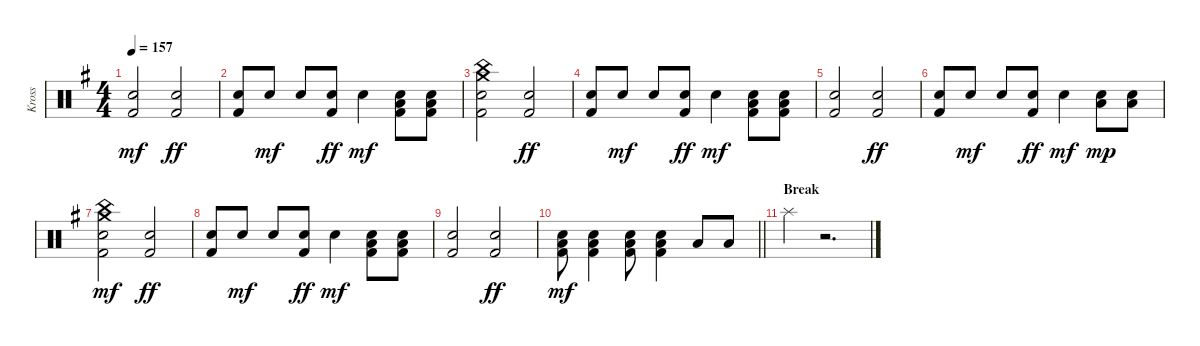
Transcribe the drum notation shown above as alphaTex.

\track ("Kross" "Kross") {instrument percussion}
\staff {score}
\articulation defaults
\ts (4 4)
\tempo 157
\clef neutral
\ks g
("Electric Snare (hit)" "Kick (hit) 2").2{dy mf} ("Electric Snare (hit)" "Kick (hit) 2").2{dy ff} |
("Electric Snare (hit)" "Kick (hit) 2").8 "Electric Snare (hit)".8{dy mf} "Electric Snare (hit)".8 ("Electric Snare (hit)" "Kick (hit) 2").8{dy ff} "Electric Snare (hit)".4{dy mf} ("Electric Snare (hit)" "Low Floor Tom (hit)" "Kick (hit) 2").8 ("Electric Snare (hit)" "Low Floor Tom (hit)" "Kick (hit) 2").8 |
("Crash medium (hit)" "Electric Snare (hit)" "China (hit)" "Kick (hit) 2").2 ("Electric Snare (hit)" "Kick (hit) 2").2{dy ff} |
("Electric Snare (hit)" "Kick (hit) 2").8 "Electric Snare (hit)".8{dy mf} "Electric Snare (hit)".8 ("Electric Snare (hit)" "Kick (hit) 2").8{dy ff} "Electric Snare (hit)".4{dy mf} ("Electric Snare (hit)" "Low Floor Tom (hit)" "Kick (hit) 2").8 ("Electric Snare (hit)" "Low Floor Tom (hit)" "Kick (hit) 2").8 |
("Electric Snare (hit)" "Kick (hit) 2").2 ("Electric Snare (hit)" "Kick (hit) 2").2{dy ff} |
("Electric Snare (hit)" "Kick (hit) 2").8 "Electric Snare (hit)".8{dy mf} "Electric Snare (hit)".8 ("Electric Snare (hit)" "Kick (hit) 2").8{dy ff} "Electric Snare (hit)".4{dy mf} ("Electric Snare (hit)" "Low Floor Tom (hit)").8{dy mp} ("Electric Snare (hit)" "Low Floor Tom (hit)").8 |
("Crash medium (hit)" "Electric Snare (hit)" "China (hit)" "Kick (hit) 2").2{dy mf} ("Electric Snare (hit)" "Kick (hit) 2").2{dy ff} |
("Electric Snare (hit)" "Kick (hit) 2").8 "Electric Snare (hit)".8{dy mf} "Electric Snare (hit)".8 ("Electric Snare (hit)" "Kick (hit) 2").8{dy ff} "Electric Snare (hit)".4{dy mf} ("Electric Snare (hit)" "Low Floor Tom (hit)" "Kick (hit) 2").8 ("Electric Snare (hit)" "Low Floor Tom (hit)" "Kick (hit) 2").8 |
("Electric Snare (hit)" "Kick (hit) 2").2 ("Electric Snare (hit)" "Kick (hit) 2").2{dy ff} |
\barLineRight lightlight
("Electric Snare (hit)" "Low Floor Tom (hit)" "Kick (hit) 2").8{dy mf} ("Electric Snare (hit)" "Low Floor Tom (hit)" "Kick (hit) 2").4 ("Electric Snare (hit)" "Low Floor Tom (hit)" "Kick (hit) 2").8 ("Electric Snare (hit)" "Low Floor Tom (hit)" "Kick (hit) 2").4 "Low Floor Tom (hit)".8 "Low Floor Tom (hit)".8 |
\section ("" "Break")
"Splash (hit)".4 r.2{d}
